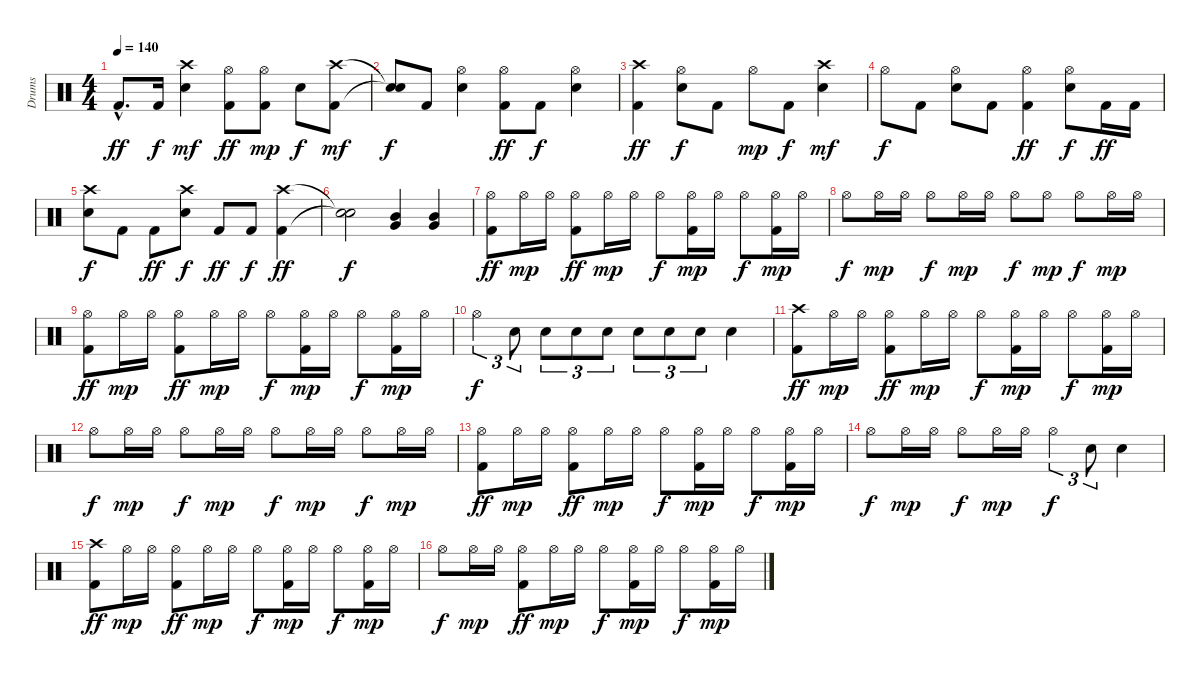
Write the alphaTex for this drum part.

\track ("Drums" "Drums") {instrument percussion}
\staff {score}
\articulation defaults
\ts (4 4)
\tempo 140
\clef neutral
\ks c "Kick (hit) 2"{hac}.8{d dy ff} "Kick (hit) 2".16{dy f}
("Crash high (hit)" "Electric Snare (hit)").4{dy mf} ("Hi-Hat (open)" "Kick (hit) 2").8{dy ff} ("Hi-Hat (open)" "Kick (hit) 2").8{dy mp} "Electric Snare (hit)".8{dy f} ("Crash high (hit)" "Kick (hit) 2").8{dy mf} |
("Snare (hit)"{t} "Snare (hit)"{t}).8{dy f} "Kick (hit) 2".8 ("Hi-Hat (open)" "Electric Snare (hit)").4 ("Hi-Hat (open)" "Kick (hit) 2").8{dy ff} "Kick (hit) 2".8{dy f} ("Hi-Hat (open)" "Electric Snare (hit)").4 |
("Crash high (hit)" "Kick (hit) 2").4{dy ff} ("Hi-Hat (open)" "Electric Snare (hit)").8{dy f} "Kick (hit) 2".8 "Hi-Hat (open)".8{dy mp} "Kick (hit) 2".8{dy f} ("Crash high (hit)" "Electric Snare (hit)").4{dy mf} |
"Hi-Hat (open)".8{dy f} "Kick (hit) 2".8 ("Hi-Hat (open)" "Electric Snare (hit)").8 "Kick (hit) 2".8 ("Hi-Hat (open)" "Kick (hit) 2").4{dy ff} ("Hi-Hat (open)" "Electric Snare (hit)").8{dy f} "Kick (hit) 2".16{dy ff} "Kick (hit) 2".16 |
("Crash high (hit)" "Electric Snare (hit)").8{dy f} "Kick (hit) 2".8 "Kick (hit) 2".8{dy ff} ("Crash high (hit)" "Electric Snare (hit)").8{dy f} "Kick (hit) 2".8{dy ff} "Kick (hit) 2".8{dy f} ("Crash high (hit)" "Kick (hit) 2").4{dy ff} |
("Snare (hit)"{t} "Snare (hit)"{t}).2{dy f} ("Mid Tom (hit)" "Very Low Tom (hit)").4 ("Mid Tom (hit)" "Very Low Tom (hit)").4 |
("Hi-Hat (open)" "Kick (hit) 2").8{dy ff} "Hi-Hat (open)".16{dy mp} "Hi-Hat (open)".16 ("Hi-Hat (open)" "Kick (hit) 2").8{dy ff} "Hi-Hat (open)".16{dy mp} "Hi-Hat (open)".16 "Hi-Hat (open)".8{dy f} ("Hi-Hat (open)" "Kick (hit) 2").16{dy mp} "Hi-Hat (open)".16 "Hi-Hat (open)".8{dy f} ("Hi-Hat (open)" "Kick (hit) 2").16{dy mp} "Hi-Hat (open)".16 |
"Hi-Hat (open)".8{dy f} "Hi-Hat (open)".16{dy mp} "Hi-Hat (open)".16 "Hi-Hat (open)".8{dy f} "Hi-Hat (open)".16{dy mp} "Hi-Hat (open)".16 "Hi-Hat (open)".8{dy f} "Hi-Hat (open)".8{dy mp} "Hi-Hat (open)".8{dy f} "Hi-Hat (open)".16{dy mp} "Hi-Hat (open)".16 |
("Hi-Hat (open)" "Kick (hit) 2").8{dy ff} "Hi-Hat (open)".16{dy mp} "Hi-Hat (open)".16 ("Hi-Hat (open)" "Kick (hit) 2").8{dy ff} "Hi-Hat (open)".16{dy mp} "Hi-Hat (open)".16 "Hi-Hat (open)".8{dy f} ("Hi-Hat (open)" "Kick (hit) 2").16{dy mp} "Hi-Hat (open)".16 "Hi-Hat (open)".8{dy f} ("Hi-Hat (open)" "Kick (hit) 2").16{dy mp} "Hi-Hat (open)".16 |
"Hi-Hat (open)".4{tu (3 2) dy f} "Electric Snare (hit)".8{tu (3 2)} "Electric Snare (hit)".8{tu (3 2)} "Electric Snare (hit)".8{tu (3 2)} "Electric Snare (hit)".8{tu (3 2)} "Electric Snare (hit)".8{tu (3 2)} "Electric Snare (hit)".8{tu (3 2)} "Electric Snare (hit)".8{tu (3 2)} "Electric Snare (hit)".4 |
("Crash high (hit)" "Kick (hit) 2").8{dy ff} "Hi-Hat (open)".16{dy mp} "Hi-Hat (open)".16 ("Hi-Hat (open)" "Kick (hit) 2").8{dy ff} "Hi-Hat (open)".16{dy mp} "Hi-Hat (open)".16 "Hi-Hat (open)".8{dy f} ("Hi-Hat (open)" "Kick (hit) 2").16{dy mp} "Hi-Hat (open)".16 "Hi-Hat (open)".8{dy f} ("Hi-Hat (open)" "Kick (hit) 2").16{dy mp} "Hi-Hat (open)".16 |
"Hi-Hat (open)".8{dy f} "Hi-Hat (open)".16{dy mp} "Hi-Hat (open)".16 "Hi-Hat (open)".8{dy f} "Hi-Hat (open)".16{dy mp} "Hi-Hat (open)".16 "Hi-Hat (open)".8{dy f} "Hi-Hat (open)".16{dy mp} "Hi-Hat (open)".16 "Hi-Hat (open)".8{dy f} "Hi-Hat (open)".16{dy mp} "Hi-Hat (open)".16 |
("Hi-Hat (open)" "Kick (hit) 2").8{dy ff} "Hi-Hat (open)".16{dy mp} "Hi-Hat (open)".16 ("Hi-Hat (open)" "Kick (hit) 2").8{dy ff} "Hi-Hat (open)".16{dy mp} "Hi-Hat (open)".16 "Hi-Hat (open)".8{dy f} ("Hi-Hat (open)" "Kick (hit) 2").16{dy mp} "Hi-Hat (open)".16 "Hi-Hat (open)".8{dy f} ("Hi-Hat (open)" "Kick (hit) 2").16{dy mp} "Hi-Hat (open)".16 |
"Hi-Hat (open)".8{dy f} "Hi-Hat (open)".16{dy mp} "Hi-Hat (open)".16 "Hi-Hat (open)".8{dy f} "Hi-Hat (open)".16{dy mp} "Hi-Hat (open)".16 "Hi-Hat (open)".4{tu (3 2) dy f} "Electric Snare (hit)".8{tu (3 2)} "Electric Snare (hit)".4 |
("Crash high (hit)" "Kick (hit) 2").8{dy ff} "Hi-Hat (open)".16{dy mp} "Hi-Hat (open)".16 ("Hi-Hat (open)" "Kick (hit) 2").8{dy ff} "Hi-Hat (open)".16{dy mp} "Hi-Hat (open)".16 "Hi-Hat (open)".8{dy f} ("Hi-Hat (open)" "Kick (hit) 2").16{dy mp} "Hi-Hat (open)".16 "Hi-Hat (open)".8{dy f} ("Hi-Hat (open)" "Kick (hit) 2").16{dy mp} "Hi-Hat (open)".16 |
"Hi-Hat (open)".8{dy f} "Hi-Hat (open)".16{dy mp} "Hi-Hat (open)".16 ("Hi-Hat (open)" "Kick (hit) 2").8{dy ff} "Hi-Hat (open)".16{dy mp} "Hi-Hat (open)".16 "Hi-Hat (open)".8{dy f} ("Hi-Hat (open)" "Kick (hit) 2").16{dy mp} "Hi-Hat (open)".16 "Hi-Hat (open)".8{dy f} ("Hi-Hat (open)" "Kick (hit) 2").16{dy mp} "Hi-Hat (open)".16
